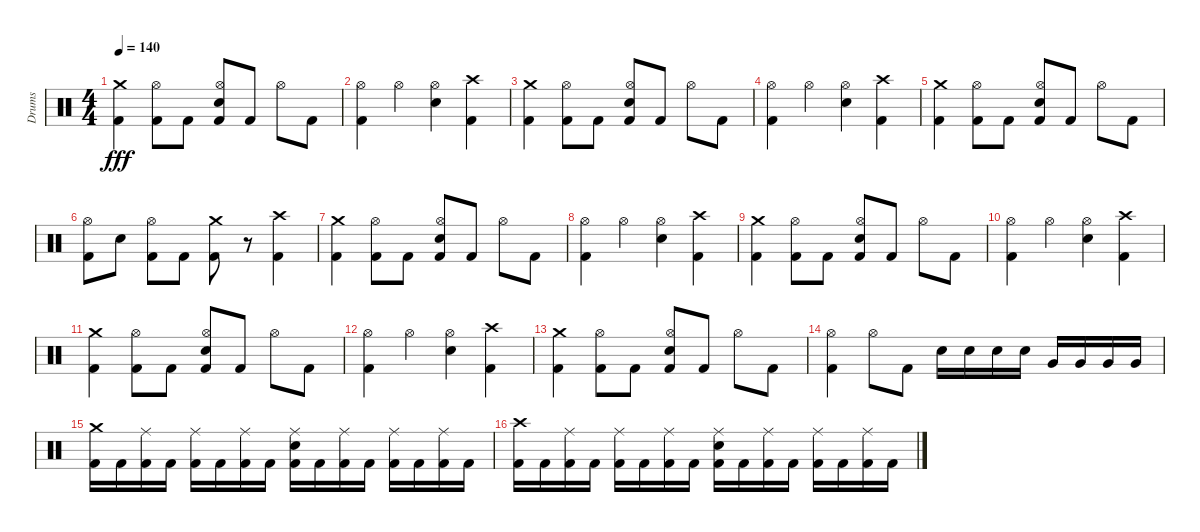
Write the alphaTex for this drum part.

\track ("Drums" "Drums") {instrument percussion}
\staff {score}
\articulation defaults
\ts (4 4)
\tempo 140
\clef neutral
\ks c
("Kick (hit) 2" "Crash medium (hit)").4{dy fff} ("Kick (hit) 2" "Hi-Hat (open)").8 "Kick (hit) 2".8 ("Kick (hit) 2" "Electric Snare (hit)" "Hi-Hat (open)").8 "Kick (hit) 2".8 "Hi-Hat (open)".8 "Kick (hit) 2".8 |
("Kick (hit) 2" "Hi-Hat (open)").4 "Hi-Hat (open)".4 ("Electric Snare (hit)" "Hi-Hat (open)").4 ("Kick (hit) 2" "Crash high (hit)").4 |
("Kick (hit) 2" "Crash medium (hit)").4 ("Kick (hit) 2" "Hi-Hat (open)").8 "Kick (hit) 2".8 ("Kick (hit) 2" "Electric Snare (hit)" "Hi-Hat (open)").8 "Kick (hit) 2".8 "Hi-Hat (open)".8 "Kick (hit) 2".8 |
("Kick (hit) 2" "Hi-Hat (open)").4 "Hi-Hat (open)".4 ("Electric Snare (hit)" "Hi-Hat (open)").4 ("Kick (hit) 2" "Crash high (hit)").4 |
("Kick (hit) 2" "Crash medium (hit)").4 ("Kick (hit) 2" "Hi-Hat (open)").8 "Kick (hit) 2".8 ("Kick (hit) 2" "Electric Snare (hit)" "Hi-Hat (open)").8 "Kick (hit) 2".8 "Hi-Hat (open)".8 "Kick (hit) 2".8 |
("Kick (hit) 2" "Hi-Hat (open)").8 "Electric Snare (hit)".8 ("Kick (hit) 2" "Hi-Hat (open)").8 "Kick (hit) 2".8 ("Kick (hit) 2" "Crash medium (hit)").8 r.8 ("Kick (hit) 2" "Crash high (hit)").4 |
("Kick (hit) 2" "Crash medium (hit)").4 ("Kick (hit) 2" "Hi-Hat (open)").8 "Kick (hit) 2".8 ("Kick (hit) 2" "Electric Snare (hit)" "Hi-Hat (open)").8 "Kick (hit) 2".8 "Hi-Hat (open)".8 "Kick (hit) 2".8 |
("Kick (hit) 2" "Hi-Hat (open)").4 "Hi-Hat (open)".4 ("Electric Snare (hit)" "Hi-Hat (open)").4 ("Kick (hit) 2" "Crash high (hit)").4 |
("Kick (hit) 2" "Crash medium (hit)").4 ("Kick (hit) 2" "Hi-Hat (open)").8 "Kick (hit) 2".8 ("Kick (hit) 2" "Electric Snare (hit)" "Hi-Hat (open)").8 "Kick (hit) 2".8 "Hi-Hat (open)".8 "Kick (hit) 2".8 |
("Kick (hit) 2" "Hi-Hat (open)").4 "Hi-Hat (open)".4 ("Electric Snare (hit)" "Hi-Hat (open)").4 ("Kick (hit) 2" "Crash high (hit)").4 |
("Kick (hit) 2" "Crash medium (hit)").4 ("Kick (hit) 2" "Hi-Hat (open)").8 "Kick (hit) 2".8 ("Kick (hit) 2" "Electric Snare (hit)" "Hi-Hat (open)").8 "Kick (hit) 2".8 "Hi-Hat (open)".8 "Kick (hit) 2".8 |
("Kick (hit) 2" "Hi-Hat (open)").4 "Hi-Hat (open)".4 ("Electric Snare (hit)" "Hi-Hat (open)").4 ("Kick (hit) 2" "Crash high (hit)").4 |
("Kick (hit) 2" "Crash medium (hit)").4 ("Kick (hit) 2" "Hi-Hat (open)").8 "Kick (hit) 2".8 ("Kick (hit) 2" "Electric Snare (hit)" "Hi-Hat (open)").8 "Kick (hit) 2".8 "Hi-Hat (open)".8 "Kick (hit) 2".8 |
("Kick (hit) 2" "Hi-Hat (open)").4 "Hi-Hat (open)".8 "Kick (hit) 2".8 "Electric Snare (hit)".16 "Electric Snare (hit)".16 "Electric Snare (hit)".16 "Electric Snare (hit)".16 "Very Low Tom (hit)".16 "Very Low Tom (hit)".16 "Very Low Tom (hit)".16 "Very Low Tom (hit)".16 |
("Kick (hit) 2" "Crash medium (hit)").16 "Kick (hit) 2".16 ("Kick (hit) 2" "Ride (middle)").16 "Kick (hit) 2".16 ("Kick (hit) 2" "Ride (middle)").16 "Kick (hit) 2".16 ("Kick (hit) 2" "Ride (middle)").16 "Kick (hit) 2".16 ("Kick (hit) 2" "Electric Snare (hit)" "Ride (middle)").16 "Kick (hit) 2".16 ("Kick (hit) 2" "Ride (middle)").16 "Kick (hit) 2".16 ("Kick (hit) 2" "Ride (middle)").16 "Kick (hit) 2".16 ("Kick (hit) 2" "Ride (middle)").16 "Kick (hit) 2".16 |
("Kick (hit) 2" "Crash high (hit)").16 "Kick (hit) 2".16 ("Kick (hit) 2" "Ride (middle)").16 "Kick (hit) 2".16 ("Kick (hit) 2" "Ride (middle)").16 "Kick (hit) 2".16 ("Kick (hit) 2" "Ride (middle)").16 "Kick (hit) 2".16 ("Kick (hit) 2" "Electric Snare (hit)" "Ride (middle)").16 "Kick (hit) 2".16 ("Kick (hit) 2" "Ride (middle)").16 "Kick (hit) 2".16 ("Kick (hit) 2" "Ride (middle)").16 "Kick (hit) 2".16 ("Kick (hit) 2" "Ride (middle)").16 "Kick (hit) 2".16
